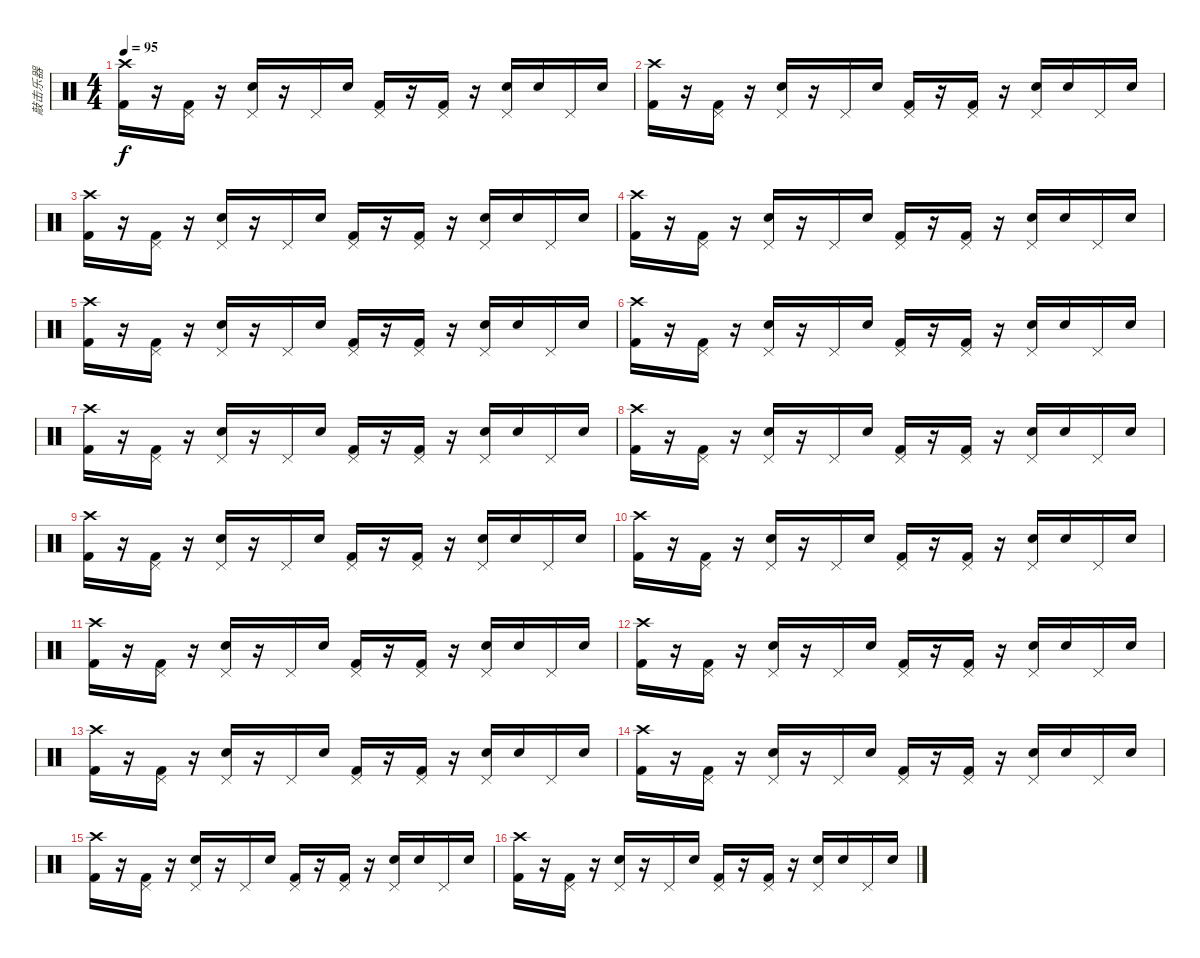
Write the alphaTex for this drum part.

\track ("敲击乐器" "敲击乐器") {instrument percussion}
\staff {score}
\articulation defaults
\ts (4 4)
\tempo 95
\clef neutral
\ks c
("Crash high (hit)" "Kick (hit) 2").16{dy f} r.16 ("Pedal Hi-Hat (hit)" "Kick (hit) 2").16 r.16 ("Pedal Hi-Hat (hit)" "Electric Snare (hit)").16 r.16 "Pedal Hi-Hat (hit)".16 "Electric Snare (hit)".16 ("Pedal Hi-Hat (hit)" "Kick (hit) 2").16 r.16 ("Pedal Hi-Hat (hit)" "Kick (hit) 2").16 r.16 ("Pedal Hi-Hat (hit)" "Electric Snare (hit)").16 "Electric Snare (hit)".16 "Pedal Hi-Hat (hit)".16 "Electric Snare (hit)".16 |
("Crash high (hit)" "Kick (hit) 2").16 r.16 ("Pedal Hi-Hat (hit)" "Kick (hit) 2").16 r.16 ("Pedal Hi-Hat (hit)" "Electric Snare (hit)").16 r.16 "Pedal Hi-Hat (hit)".16 "Electric Snare (hit)".16 ("Pedal Hi-Hat (hit)" "Kick (hit) 2").16 r.16 ("Pedal Hi-Hat (hit)" "Kick (hit) 2").16 r.16 ("Pedal Hi-Hat (hit)" "Electric Snare (hit)").16 "Electric Snare (hit)".16 "Pedal Hi-Hat (hit)".16 "Electric Snare (hit)".16 |
("Crash high (hit)" "Kick (hit) 2").16 r.16 ("Pedal Hi-Hat (hit)" "Kick (hit) 2").16 r.16 ("Pedal Hi-Hat (hit)" "Electric Snare (hit)").16 r.16 "Pedal Hi-Hat (hit)".16 "Electric Snare (hit)".16 ("Pedal Hi-Hat (hit)" "Kick (hit) 2").16 r.16 ("Pedal Hi-Hat (hit)" "Kick (hit) 2").16 r.16 ("Pedal Hi-Hat (hit)" "Electric Snare (hit)").16 "Electric Snare (hit)".16 "Pedal Hi-Hat (hit)".16 "Electric Snare (hit)".16 |
("Crash high (hit)" "Kick (hit) 2").16 r.16 ("Pedal Hi-Hat (hit)" "Kick (hit) 2").16 r.16 ("Pedal Hi-Hat (hit)" "Electric Snare (hit)").16 r.16 "Pedal Hi-Hat (hit)".16 "Electric Snare (hit)".16 ("Pedal Hi-Hat (hit)" "Kick (hit) 2").16 r.16 ("Pedal Hi-Hat (hit)" "Kick (hit) 2").16 r.16 ("Pedal Hi-Hat (hit)" "Electric Snare (hit)").16 "Electric Snare (hit)".16 "Pedal Hi-Hat (hit)".16 "Electric Snare (hit)".16 |
("Crash high (hit)" "Kick (hit) 2").16 r.16 ("Pedal Hi-Hat (hit)" "Kick (hit) 2").16 r.16 ("Pedal Hi-Hat (hit)" "Electric Snare (hit)").16 r.16 "Pedal Hi-Hat (hit)".16 "Electric Snare (hit)".16 ("Pedal Hi-Hat (hit)" "Kick (hit) 2").16 r.16 ("Pedal Hi-Hat (hit)" "Kick (hit) 2").16 r.16 ("Pedal Hi-Hat (hit)" "Electric Snare (hit)").16 "Electric Snare (hit)".16 "Pedal Hi-Hat (hit)".16 "Electric Snare (hit)".16 |
("Crash high (hit)" "Kick (hit) 2").16 r.16 ("Pedal Hi-Hat (hit)" "Kick (hit) 2").16 r.16 ("Pedal Hi-Hat (hit)" "Electric Snare (hit)").16 r.16 "Pedal Hi-Hat (hit)".16 "Electric Snare (hit)".16 ("Pedal Hi-Hat (hit)" "Kick (hit) 2").16 r.16 ("Pedal Hi-Hat (hit)" "Kick (hit) 2").16 r.16 ("Pedal Hi-Hat (hit)" "Electric Snare (hit)").16 "Electric Snare (hit)".16 "Pedal Hi-Hat (hit)".16 "Electric Snare (hit)".16 |
("Crash high (hit)" "Kick (hit) 2").16 r.16 ("Pedal Hi-Hat (hit)" "Kick (hit) 2").16 r.16 ("Pedal Hi-Hat (hit)" "Electric Snare (hit)").16 r.16 "Pedal Hi-Hat (hit)".16 "Electric Snare (hit)".16 ("Pedal Hi-Hat (hit)" "Kick (hit) 2").16 r.16 ("Pedal Hi-Hat (hit)" "Kick (hit) 2").16 r.16 ("Pedal Hi-Hat (hit)" "Electric Snare (hit)").16 "Electric Snare (hit)".16 "Pedal Hi-Hat (hit)".16 "Electric Snare (hit)".16 |
("Crash high (hit)" "Kick (hit) 2").16 r.16 ("Pedal Hi-Hat (hit)" "Kick (hit) 2").16 r.16 ("Pedal Hi-Hat (hit)" "Electric Snare (hit)").16 r.16 "Pedal Hi-Hat (hit)".16 "Electric Snare (hit)".16 ("Pedal Hi-Hat (hit)" "Kick (hit) 2").16 r.16 ("Pedal Hi-Hat (hit)" "Kick (hit) 2").16 r.16 ("Pedal Hi-Hat (hit)" "Electric Snare (hit)").16 "Electric Snare (hit)".16 "Pedal Hi-Hat (hit)".16 "Electric Snare (hit)".16 |
("Crash high (hit)" "Kick (hit) 2").16 r.16 ("Pedal Hi-Hat (hit)" "Kick (hit) 2").16 r.16 ("Pedal Hi-Hat (hit)" "Electric Snare (hit)").16 r.16 "Pedal Hi-Hat (hit)".16 "Electric Snare (hit)".16 ("Pedal Hi-Hat (hit)" "Kick (hit) 2").16 r.16 ("Pedal Hi-Hat (hit)" "Kick (hit) 2").16 r.16 ("Pedal Hi-Hat (hit)" "Electric Snare (hit)").16 "Electric Snare (hit)".16 "Pedal Hi-Hat (hit)".16 "Electric Snare (hit)".16 |
("Crash high (hit)" "Kick (hit) 2").16 r.16 ("Pedal Hi-Hat (hit)" "Kick (hit) 2").16 r.16 ("Pedal Hi-Hat (hit)" "Electric Snare (hit)").16 r.16 "Pedal Hi-Hat (hit)".16 "Electric Snare (hit)".16 ("Pedal Hi-Hat (hit)" "Kick (hit) 2").16 r.16 ("Pedal Hi-Hat (hit)" "Kick (hit) 2").16 r.16 ("Pedal Hi-Hat (hit)" "Electric Snare (hit)").16 "Electric Snare (hit)".16 "Pedal Hi-Hat (hit)".16 "Electric Snare (hit)".16 |
("Crash high (hit)" "Kick (hit) 2").16 r.16 ("Pedal Hi-Hat (hit)" "Kick (hit) 2").16 r.16 ("Pedal Hi-Hat (hit)" "Electric Snare (hit)").16 r.16 "Pedal Hi-Hat (hit)".16 "Electric Snare (hit)".16 ("Pedal Hi-Hat (hit)" "Kick (hit) 2").16 r.16 ("Pedal Hi-Hat (hit)" "Kick (hit) 2").16 r.16 ("Pedal Hi-Hat (hit)" "Electric Snare (hit)").16 "Electric Snare (hit)".16 "Pedal Hi-Hat (hit)".16 "Electric Snare (hit)".16 |
("Crash high (hit)" "Kick (hit) 2").16 r.16 ("Pedal Hi-Hat (hit)" "Kick (hit) 2").16 r.16 ("Pedal Hi-Hat (hit)" "Electric Snare (hit)").16 r.16 "Pedal Hi-Hat (hit)".16 "Electric Snare (hit)".16 ("Pedal Hi-Hat (hit)" "Kick (hit) 2").16 r.16 ("Pedal Hi-Hat (hit)" "Kick (hit) 2").16 r.16 ("Pedal Hi-Hat (hit)" "Electric Snare (hit)").16 "Electric Snare (hit)".16 "Pedal Hi-Hat (hit)".16 "Electric Snare (hit)".16 |
("Crash high (hit)" "Kick (hit) 2").16 r.16 ("Pedal Hi-Hat (hit)" "Kick (hit) 2").16 r.16 ("Pedal Hi-Hat (hit)" "Electric Snare (hit)").16 r.16 "Pedal Hi-Hat (hit)".16 "Electric Snare (hit)".16 ("Pedal Hi-Hat (hit)" "Kick (hit) 2").16 r.16 ("Pedal Hi-Hat (hit)" "Kick (hit) 2").16 r.16 ("Pedal Hi-Hat (hit)" "Electric Snare (hit)").16 "Electric Snare (hit)".16 "Pedal Hi-Hat (hit)".16 "Electric Snare (hit)".16 |
("Crash high (hit)" "Kick (hit) 2").16 r.16 ("Pedal Hi-Hat (hit)" "Kick (hit) 2").16 r.16 ("Pedal Hi-Hat (hit)" "Electric Snare (hit)").16 r.16 "Pedal Hi-Hat (hit)".16 "Electric Snare (hit)".16 ("Pedal Hi-Hat (hit)" "Kick (hit) 2").16 r.16 ("Pedal Hi-Hat (hit)" "Kick (hit) 2").16 r.16 ("Pedal Hi-Hat (hit)" "Electric Snare (hit)").16 "Electric Snare (hit)".16 "Pedal Hi-Hat (hit)".16 "Electric Snare (hit)".16 |
("Crash high (hit)" "Kick (hit) 2").16 r.16 ("Pedal Hi-Hat (hit)" "Kick (hit) 2").16 r.16 ("Pedal Hi-Hat (hit)" "Electric Snare (hit)").16 r.16 "Pedal Hi-Hat (hit)".16 "Electric Snare (hit)".16 ("Pedal Hi-Hat (hit)" "Kick (hit) 2").16 r.16 ("Pedal Hi-Hat (hit)" "Kick (hit) 2").16 r.16 ("Pedal Hi-Hat (hit)" "Electric Snare (hit)").16 "Electric Snare (hit)".16 "Pedal Hi-Hat (hit)".16 "Electric Snare (hit)".16 |
("Crash high (hit)" "Kick (hit) 2").16 r.16 ("Pedal Hi-Hat (hit)" "Kick (hit) 2").16 r.16 ("Pedal Hi-Hat (hit)" "Electric Snare (hit)").16 r.16 "Pedal Hi-Hat (hit)".16 "Electric Snare (hit)".16 ("Pedal Hi-Hat (hit)" "Kick (hit) 2").16 r.16 ("Pedal Hi-Hat (hit)" "Kick (hit) 2").16 r.16 ("Pedal Hi-Hat (hit)" "Electric Snare (hit)").16 "Electric Snare (hit)".16 "Pedal Hi-Hat (hit)".16 "Electric Snare (hit)".16
